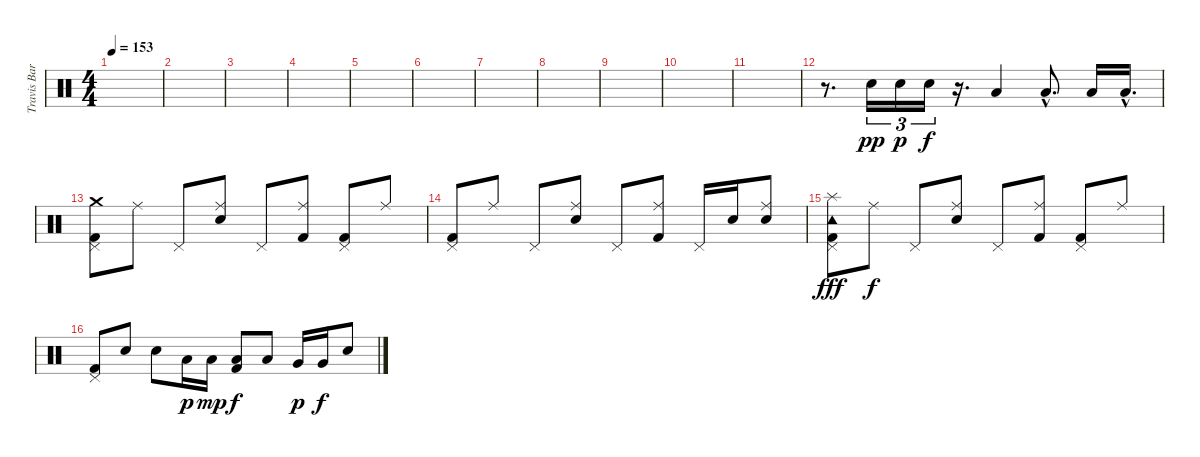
\track ("Travis Barker" "Travis Bar") {instrument percussion}
\staff {score}
\articulation defaults
\ts (4 4)
\tempo 153
\clef neutral
\ks c
|
|
|
|
|
|
|
|
|
|
|
r.8{d} "Electric Snare (hit)".16{tu (3 2) dy pp} "Electric Snare (hit)".16{tu (3 2) dy p} "Electric Snare (hit)".16{tu (3 2) dy f} r.16{d} "Low Tom (hit)".4 "Low Floor Tom (hit)"{hac}.8{d} "Low Floor Tom (hit)".16 "Low Floor Tom (hit)"{hac}.16{d} |
("Crash medium (hit)" "Kick (hit) 2" "Pedal Hi-Hat (hit)").8 "Ride (middle)".8 "Pedal Hi-Hat (hit)".8 ("Ride (middle)" "Electric Snare (hit)").8 "Pedal Hi-Hat (hit)".8 ("Ride (middle)" "Kick (hit) 2").8 ("Kick (hit) 2" "Pedal Hi-Hat (hit)").8 "Ride (middle)".8 |
("Kick (hit) 2" "Pedal Hi-Hat (hit)").8 "Ride (middle)".8 "Pedal Hi-Hat (hit)".8 ("Ride (middle)" "Electric Snare (hit)").8 "Pedal Hi-Hat (hit)".8 ("Ride (middle)" "Kick (hit) 2").8 "Pedal Hi-Hat (hit)".16 "Electric Snare (hit)".16 ("Ride (middle)" "Electric Snare (hit)").8 |
("Splash (hit)" "Tambourine (hit)" "Kick (hit) 2" "Pedal Hi-Hat (hit)").8{dy fff} "Ride (middle)".8{dy f} "Pedal Hi-Hat (hit)".8 ("Ride (middle)" "Electric Snare (hit)").8 "Pedal Hi-Hat (hit)".8 ("Ride (middle)" "Kick (hit) 2").8 ("Kick (hit) 2" "Pedal Hi-Hat (hit)").8 "Ride (middle)".8 |
("Kick (hit) 2" "Pedal Hi-Hat (hit)").8 "Electric Snare (hit)".8 "Electric Snare (hit)".8 "Low Tom (hit)".16{dy p} "Low Tom (hit)".16{dy mp} ("Low Tom (hit)" "Kick (hit) 2").8{dy f} "Low Tom (hit)".8 "Very Low Tom (hit)".16{dy p} "Very Low Tom (hit)".16{dy f} "Electric Snare (hit)".8
